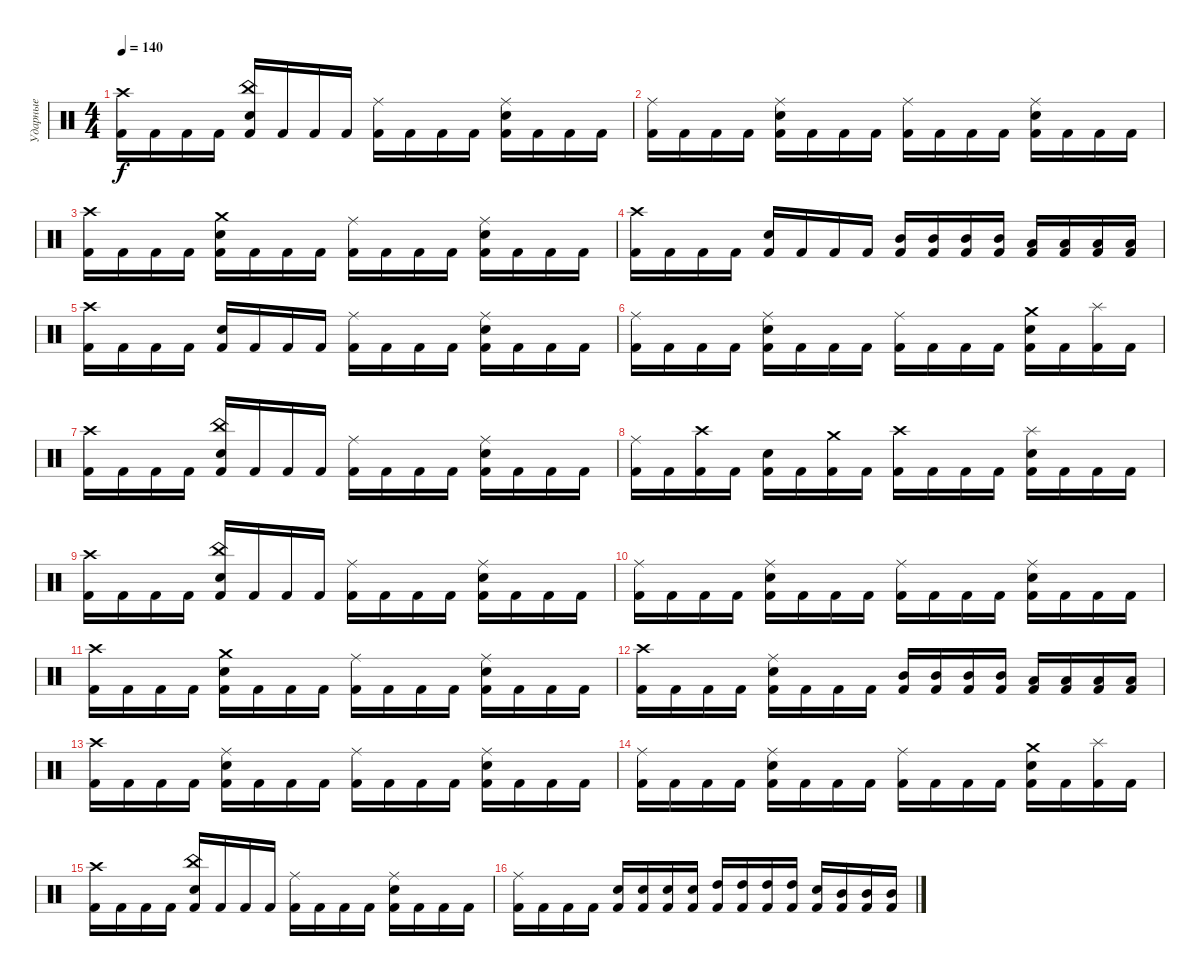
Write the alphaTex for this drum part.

\track ("Ударные" "Ударные") {instrument percussion}
\staff {score}
\articulation defaults
\ts (4 4)
\tempo 140
\clef neutral
\ks c
("Kick (hit) 2" "Crash high (hit)").16{dy f} "Kick (hit) 2".16 "Kick (hit) 2".16 "Kick (hit) 2".16 ("Kick (hit) 2" "China (hit)" "Electric Snare (hit)").16 "Kick (hit) 2".16 "Kick (hit) 2".16 "Kick (hit) 2".16 ("Kick (hit) 2" "Ride (middle)").16 "Kick (hit) 2".16 "Kick (hit) 2".16 "Kick (hit) 2".16 ("Kick (hit) 2" "Ride (middle)" "Electric Snare (hit)").16 "Kick (hit) 2".16 "Kick (hit) 2".16 "Kick (hit) 2".16 |
("Kick (hit) 2" "Ride (middle)").16 "Kick (hit) 2".16 "Kick (hit) 2".16 "Kick (hit) 2".16 ("Kick (hit) 2" "Ride (middle)" "Electric Snare (hit)").16 "Kick (hit) 2".16 "Kick (hit) 2".16 "Kick (hit) 2".16 ("Kick (hit) 2" "Ride (middle)").16 "Kick (hit) 2".16 "Kick (hit) 2".16 "Kick (hit) 2".16 ("Kick (hit) 2" "Ride (middle)" "Electric Snare (hit)").16 "Kick (hit) 2".16 "Kick (hit) 2".16 "Kick (hit) 2".16 |
("Kick (hit) 2" "Crash high (hit)").16 "Kick (hit) 2".16 "Kick (hit) 2".16 "Kick (hit) 2".16 ("Kick (hit) 2" "Crash medium (hit)" "Electric Snare (hit)").16 "Kick (hit) 2".16 "Kick (hit) 2".16 "Kick (hit) 2".16 ("Kick (hit) 2" "Ride (middle)").16 "Kick (hit) 2".16 "Kick (hit) 2".16 "Kick (hit) 2".16 ("Kick (hit) 2" "Ride (middle)" "Electric Snare (hit)").16 "Kick (hit) 2".16 "Kick (hit) 2".16 "Kick (hit) 2".16 |
("Kick (hit) 2" "Crash high (hit)").16 "Kick (hit) 2".16 "Kick (hit) 2".16 "Kick (hit) 2".16 ("Kick (hit) 2" "Electric Snare (hit)").16 "Kick (hit) 2".16 "Kick (hit) 2".16 "Kick (hit) 2".16 ("Kick (hit) 2" "Mid Tom (hit)").16 ("Kick (hit) 2" "Mid Tom (hit)").16 ("Kick (hit) 2" "Mid Tom (hit)").16 ("Kick (hit) 2" "Mid Tom (hit)").16 ("Kick (hit) 2" "Low Tom (hit)").16 ("Kick (hit) 2" "Low Tom (hit)").16 ("Kick (hit) 2" "Low Tom (hit)").16 ("Kick (hit) 2" "Low Tom (hit)").16 |
("Kick (hit) 2" "Crash high (hit)").16 "Kick (hit) 2".16 "Kick (hit) 2".16 "Kick (hit) 2".16 ("Kick (hit) 2" "Electric Snare (hit)").16 "Kick (hit) 2".16 "Kick (hit) 2".16 "Kick (hit) 2".16 ("Kick (hit) 2" "Ride (middle)").16 "Kick (hit) 2".16 "Kick (hit) 2".16 "Kick (hit) 2".16 ("Kick (hit) 2" "Ride (middle)" "Electric Snare (hit)").16 "Kick (hit) 2".16 "Kick (hit) 2".16 "Kick (hit) 2".16 |
("Kick (hit) 2" "Ride (middle)").16 "Kick (hit) 2".16 "Kick (hit) 2".16 "Kick (hit) 2".16 ("Kick (hit) 2" "Ride (middle)" "Electric Snare (hit)").16 "Kick (hit) 2".16 "Kick (hit) 2".16 "Kick (hit) 2".16 ("Kick (hit) 2" "Ride (middle)").16 "Kick (hit) 2".16 "Kick (hit) 2".16 "Kick (hit) 2".16 ("Kick (hit) 2" "Crash medium (hit)" "Electric Snare (hit)").16 "Kick (hit) 2".16 ("Kick (hit) 2" "Splash (hit)").16 "Kick (hit) 2".16 |
("Kick (hit) 2" "Crash high (hit)").16 "Kick (hit) 2".16 "Kick (hit) 2".16 "Kick (hit) 2".16 ("Kick (hit) 2" "China (hit)" "Electric Snare (hit)").16 "Kick (hit) 2".16 "Kick (hit) 2".16 "Kick (hit) 2".16 ("Kick (hit) 2" "Ride (middle)").16 "Kick (hit) 2".16 "Kick (hit) 2".16 "Kick (hit) 2".16 ("Kick (hit) 2" "Ride (middle)" "Electric Snare (hit)").16 "Kick (hit) 2".16 "Kick (hit) 2".16 "Kick (hit) 2".16 |
("Kick (hit) 2" "Ride (middle)").16 "Kick (hit) 2".16 ("Kick (hit) 2" "Crash high (hit)").16 "Kick (hit) 2".16 ("Kick (hit) 2" "Electric Snare (hit)").16 "Kick (hit) 2".16 ("Kick (hit) 2" "Crash medium (hit)").16 "Kick (hit) 2".16 ("Kick (hit) 2" "Crash high (hit)").16 "Kick (hit) 2".16 "Kick (hit) 2".16 "Kick (hit) 2".16 ("Kick (hit) 2" "Splash (hit)" "Electric Snare (hit)").16 "Kick (hit) 2".16 "Kick (hit) 2".16 "Kick (hit) 2".16 |
("Kick (hit) 2" "Crash high (hit)").16 "Kick (hit) 2".16 "Kick (hit) 2".16 "Kick (hit) 2".16 ("Kick (hit) 2" "China (hit)" "Electric Snare (hit)").16 "Kick (hit) 2".16 "Kick (hit) 2".16 "Kick (hit) 2".16 ("Kick (hit) 2" "Ride (middle)").16 "Kick (hit) 2".16 "Kick (hit) 2".16 "Kick (hit) 2".16 ("Kick (hit) 2" "Ride (middle)" "Electric Snare (hit)").16 "Kick (hit) 2".16 "Kick (hit) 2".16 "Kick (hit) 2".16 |
("Kick (hit) 2" "Ride (middle)").16 "Kick (hit) 2".16 "Kick (hit) 2".16 "Kick (hit) 2".16 ("Kick (hit) 2" "Ride (middle)" "Electric Snare (hit)").16 "Kick (hit) 2".16 "Kick (hit) 2".16 "Kick (hit) 2".16 ("Kick (hit) 2" "Ride (middle)").16 "Kick (hit) 2".16 "Kick (hit) 2".16 "Kick (hit) 2".16 ("Kick (hit) 2" "Ride (middle)" "Electric Snare (hit)").16 "Kick (hit) 2".16 "Kick (hit) 2".16 "Kick (hit) 2".16 |
("Kick (hit) 2" "Crash high (hit)").16 "Kick (hit) 2".16 "Kick (hit) 2".16 "Kick (hit) 2".16 ("Kick (hit) 2" "Crash medium (hit)" "Electric Snare (hit)").16 "Kick (hit) 2".16 "Kick (hit) 2".16 "Kick (hit) 2".16 ("Kick (hit) 2" "Ride (middle)").16 "Kick (hit) 2".16 "Kick (hit) 2".16 "Kick (hit) 2".16 ("Kick (hit) 2" "Ride (middle)" "Electric Snare (hit)").16 "Kick (hit) 2".16 "Kick (hit) 2".16 "Kick (hit) 2".16 |
("Kick (hit) 2" "Crash high (hit)").16 "Kick (hit) 2".16 "Kick (hit) 2".16 "Kick (hit) 2".16 ("Kick (hit) 2" "Ride (middle)" "Electric Snare (hit)").16 "Kick (hit) 2".16 "Kick (hit) 2".16 "Kick (hit) 2".16 ("Kick (hit) 2" "Mid Tom (hit)").16 ("Kick (hit) 2" "Mid Tom (hit)").16 ("Kick (hit) 2" "Mid Tom (hit)").16 ("Kick (hit) 2" "Mid Tom (hit)").16 ("Kick (hit) 2" "Low Tom (hit)").16 ("Kick (hit) 2" "Low Tom (hit)").16 ("Kick (hit) 2" "Low Tom (hit)").16 ("Kick (hit) 2" "Low Tom (hit)").16 |
("Kick (hit) 2" "Crash high (hit)").16 "Kick (hit) 2".16 "Kick (hit) 2".16 "Kick (hit) 2".16 ("Kick (hit) 2" "Ride (middle)" "Electric Snare (hit)").16 "Kick (hit) 2".16 "Kick (hit) 2".16 "Kick (hit) 2".16 ("Kick (hit) 2" "Ride (middle)").16 "Kick (hit) 2".16 "Kick (hit) 2".16 "Kick (hit) 2".16 ("Kick (hit) 2" "Ride (middle)" "Electric Snare (hit)").16 "Kick (hit) 2".16 "Kick (hit) 2".16 "Kick (hit) 2".16 |
("Kick (hit) 2" "Ride (middle)").16 "Kick (hit) 2".16 "Kick (hit) 2".16 "Kick (hit) 2".16 ("Kick (hit) 2" "Ride (middle)" "Electric Snare (hit)").16 "Kick (hit) 2".16 "Kick (hit) 2".16 "Kick (hit) 2".16 ("Kick (hit) 2" "Ride (middle)").16 "Kick (hit) 2".16 "Kick (hit) 2".16 "Kick (hit) 2".16 ("Kick (hit) 2" "Crash medium (hit)" "Electric Snare (hit)").16 "Kick (hit) 2".16 ("Kick (hit) 2" "Splash (hit)").16 "Kick (hit) 2".16 |
("Kick (hit) 2" "Crash high (hit)").16 "Kick (hit) 2".16 "Kick (hit) 2".16 "Kick (hit) 2".16 ("Kick (hit) 2" "China (hit)" "Electric Snare (hit)").16 "Kick (hit) 2".16 "Kick (hit) 2".16 "Kick (hit) 2".16 ("Kick (hit) 2" "Ride (middle)").16 "Kick (hit) 2".16 "Kick (hit) 2".16 "Kick (hit) 2".16 ("Kick (hit) 2" "Ride (middle)" "Electric Snare (hit)").16 "Kick (hit) 2".16 "Kick (hit) 2".16 "Kick (hit) 2".16 |
("Kick (hit) 2" "Ride (middle)").16 "Kick (hit) 2".16 "Kick (hit) 2".16 "Kick (hit) 2".16 ("Kick (hit) 2" "Electric Snare (hit)").16 ("Kick (hit) 2" "Electric Snare (hit)").16 ("Kick (hit) 2" "Electric Snare (hit)").16 ("Kick (hit) 2" "Electric Snare (hit)").16 ("Kick (hit) 2" "High Tom (hit)").16 ("Kick (hit) 2" "High Tom (hit)").16 ("Kick (hit) 2" "High Tom (hit)").16 ("Kick (hit) 2" "High Tom (hit)").16 ("Kick (hit) 2" "Electric Snare (hit)").16 ("Kick (hit) 2" "Mid Tom (hit)").16 ("Kick (hit) 2" "Mid Tom (hit)").16 ("Kick (hit) 2" "Mid Tom (hit)").16
